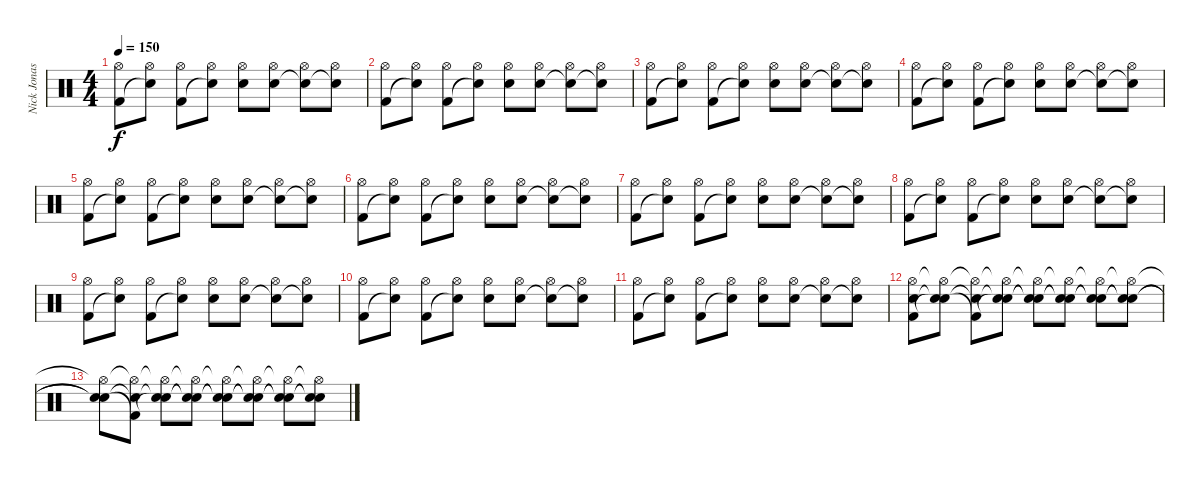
\track ("Nick Jonas Drums" "Nick Jonas") {instrument percussion}
\staff {score}
\articulation defaults
\ts (4 4)
\tempo 150
\clef neutral
\ks c
("Hi-Hat (open)" "Kick (hit) 2").8{dy f} ("Hi-Hat (open)" "Snare (hit)"{t}).8 ("Hi-Hat (open)" "Kick (hit) 2").8 ("Hi-Hat (open)" "Snare (hit)"{t}).8 ("Hi-Hat (open)" "Electric Snare (hit)").8 ("Hi-Hat (open)" "Electric Snare (hit)").8 ("Hi-Hat (open)" "Snare (hit)"{t}).8 ("Hi-Hat (open)" "Snare (hit)"{t}).8 |
("Hi-Hat (open)" "Kick (hit) 2").8 ("Hi-Hat (open)" "Snare (hit)"{t}).8 ("Hi-Hat (open)" "Kick (hit) 2").8 ("Hi-Hat (open)" "Snare (hit)"{t}).8 ("Hi-Hat (open)" "Electric Snare (hit)").8 ("Hi-Hat (open)" "Electric Snare (hit)").8 ("Hi-Hat (open)" "Snare (hit)"{t}).8 ("Hi-Hat (open)" "Snare (hit)"{t}).8 |
("Hi-Hat (open)" "Kick (hit) 2").8 ("Hi-Hat (open)" "Snare (hit)"{t}).8 ("Hi-Hat (open)" "Kick (hit) 2").8 ("Hi-Hat (open)" "Snare (hit)"{t}).8 ("Hi-Hat (open)" "Electric Snare (hit)").8 ("Hi-Hat (open)" "Electric Snare (hit)").8 ("Hi-Hat (open)" "Snare (hit)"{t}).8 ("Hi-Hat (open)" "Snare (hit)"{t}).8 |
("Hi-Hat (open)" "Kick (hit) 2").8 ("Hi-Hat (open)" "Snare (hit)"{t}).8 ("Hi-Hat (open)" "Kick (hit) 2").8 ("Hi-Hat (open)" "Snare (hit)"{t}).8 ("Hi-Hat (open)" "Electric Snare (hit)").8 ("Hi-Hat (open)" "Electric Snare (hit)").8 ("Hi-Hat (open)" "Snare (hit)"{t}).8 ("Hi-Hat (open)" "Snare (hit)"{t}).8 |
("Hi-Hat (open)" "Kick (hit) 2").8 ("Hi-Hat (open)" "Snare (hit)"{t}).8 ("Hi-Hat (open)" "Kick (hit) 2").8 ("Hi-Hat (open)" "Snare (hit)"{t}).8 ("Hi-Hat (open)" "Electric Snare (hit)").8 ("Hi-Hat (open)" "Electric Snare (hit)").8 ("Hi-Hat (open)" "Snare (hit)"{t}).8 ("Hi-Hat (open)" "Snare (hit)"{t}).8 |
("Hi-Hat (open)" "Kick (hit) 2").8 ("Hi-Hat (open)" "Snare (hit)"{t}).8 ("Hi-Hat (open)" "Kick (hit) 2").8 ("Hi-Hat (open)" "Snare (hit)"{t}).8 ("Hi-Hat (open)" "Electric Snare (hit)").8 ("Hi-Hat (open)" "Electric Snare (hit)").8 ("Hi-Hat (open)" "Snare (hit)"{t}).8 ("Hi-Hat (open)" "Snare (hit)"{t}).8 |
("Hi-Hat (open)" "Kick (hit) 2").8 ("Hi-Hat (open)" "Snare (hit)"{t}).8 ("Hi-Hat (open)" "Kick (hit) 2").8 ("Hi-Hat (open)" "Snare (hit)"{t}).8 ("Hi-Hat (open)" "Electric Snare (hit)").8 ("Hi-Hat (open)" "Electric Snare (hit)").8 ("Hi-Hat (open)" "Snare (hit)"{t}).8 ("Hi-Hat (open)" "Snare (hit)"{t}).8 |
("Hi-Hat (open)" "Kick (hit) 2").8 ("Hi-Hat (open)" "Snare (hit)"{t}).8 ("Hi-Hat (open)" "Kick (hit) 2").8 ("Hi-Hat (open)" "Snare (hit)"{t}).8 ("Hi-Hat (open)" "Electric Snare (hit)").8 ("Hi-Hat (open)" "Electric Snare (hit)").8 ("Hi-Hat (open)" "Snare (hit)"{t}).8 ("Hi-Hat (open)" "Snare (hit)"{t}).8 |
("Hi-Hat (open)" "Kick (hit) 2").8 ("Hi-Hat (open)" "Snare (hit)"{t}).8 ("Hi-Hat (open)" "Kick (hit) 2").8 ("Hi-Hat (open)" "Snare (hit)"{t}).8 ("Hi-Hat (open)" "Electric Snare (hit)").8 ("Hi-Hat (open)" "Electric Snare (hit)").8 ("Hi-Hat (open)" "Snare (hit)"{t}).8 ("Hi-Hat (open)" "Snare (hit)"{t}).8 |
("Hi-Hat (open)" "Kick (hit) 2").8 ("Hi-Hat (open)" "Snare (hit)"{t}).8 ("Hi-Hat (open)" "Kick (hit) 2").8 ("Hi-Hat (open)" "Snare (hit)"{t}).8 ("Hi-Hat (open)" "Electric Snare (hit)").8 ("Hi-Hat (open)" "Electric Snare (hit)").8 ("Hi-Hat (open)" "Snare (hit)"{t}).8 ("Hi-Hat (open)" "Snare (hit)"{t}).8 |
("Hi-Hat (open)" "Kick (hit) 2").8 ("Hi-Hat (open)" "Snare (hit)"{t}).8 ("Hi-Hat (open)" "Kick (hit) 2").8 ("Hi-Hat (open)" "Snare (hit)"{t}).8 ("Hi-Hat (open)" "Electric Snare (hit)").8 ("Hi-Hat (open)" "Electric Snare (hit)").8 ("Hi-Hat (open)" "Snare (hit)"{t}).8 ("Hi-Hat (open)" "Snare (hit)"{t}).8 |
("Hi-Hat (open)" "Electric Snare (hit)" "Kick (hit) 2").8 ("Hi-Hat (open)"{t} "Snare (hit)"{t} "Snare (hit)"{t}).8 ("Hi-Hat (open)"{t} "Snare (hit)"{t} "Kick (hit) 2"{t}).8 ("Hi-Hat (open)"{t} "Snare (hit)"{t} "Snare (hit)"{t}).8 ("Hi-Hat (open)"{t} "Electric Snare (hit)"{t} "Snare (hit)"{t}).8 ("Hi-Hat (open)"{t} "Electric Snare (hit)"{t} "Snare (hit)"{t}).8 ("Hi-Hat (open)"{t} "Snare (hit)"{t} "Snare (hit)"{t}).8 ("Hi-Hat (open)"{t} "Snare (hit)"{t} "Snare (hit)"{t}).8 |
("Hi-Hat (open)"{t} "Snare (hit)"{t} "Snare (hit)"{t}).8 ("Hi-Hat (open)"{t} "Snare (hit)"{t} "Kick (hit) 2"{t}).8 ("Hi-Hat (open)"{t} "Snare (hit)"{t} "Snare (hit)"{t}).8 ("Hi-Hat (open)"{t} "Electric Snare (hit)"{t} "Snare (hit)"{t}).8 ("Hi-Hat (open)"{t} "Electric Snare (hit)"{t} "Snare (hit)"{t}).8 ("Hi-Hat (open)"{t} "Snare (hit)"{t} "Snare (hit)"{t}).8 ("Hi-Hat (open)"{t} "Snare (hit)"{t} "Snare (hit)"{t}).8 ("Hi-Hat (open)"{t} "Snare (hit)"{t} "Snare (hit)"{t}).8
